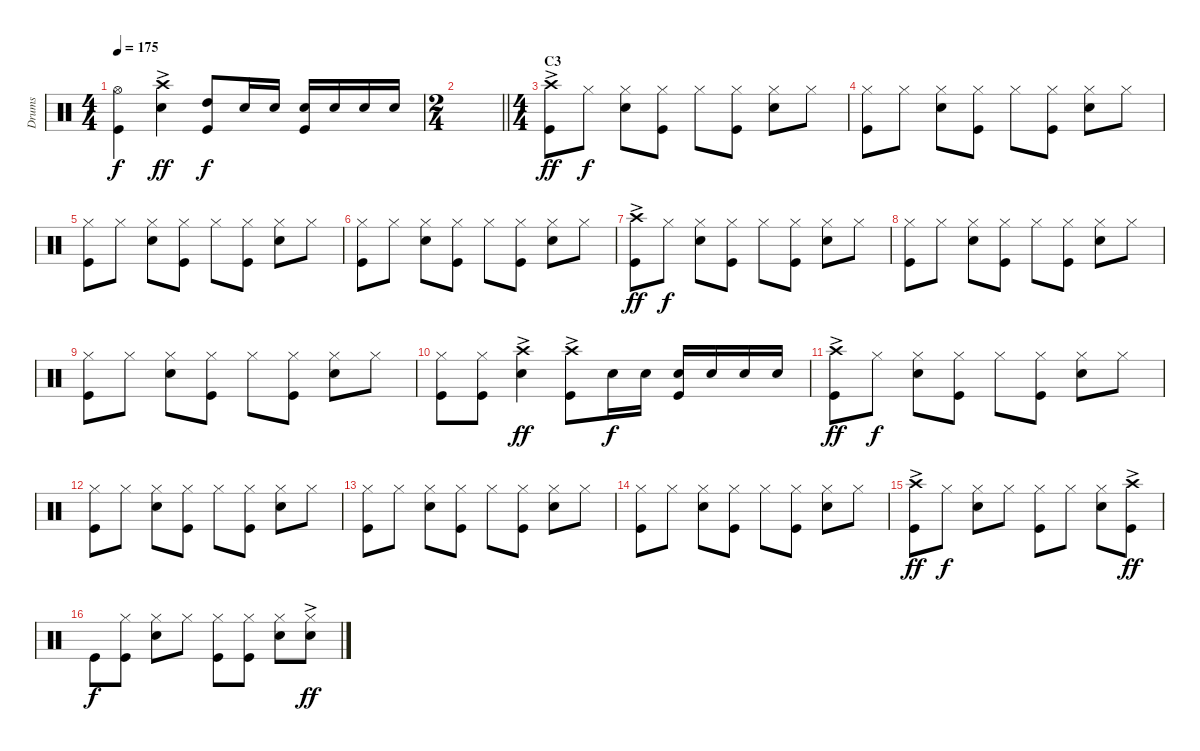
\track ("Drums" "Drums") {instrument percussion}
\staff {score}
\articulation defaults
\ts (4 4)
\tempo 175
\clef neutral
\ks c
("Hi-Hat (open)" "Kick (hit)").4{dy f} ("Crash high (hit)"{ac} "Snare (hit) 2").4{dy ff} ("Kick (hit)" "High Tom (hit)").8{dy f} "Snare (hit) 2".16 "Snare (hit) 2".16 ("Snare (hit) 2" "Kick (hit)").16 "Snare (hit) 2".16 "Snare (hit) 2".16 "Snare (hit) 2".16 |
\ts (2 4)
\barLineRight lightlight
|
\ts (4 4)
\section ("" "C3")
("Crash high (hit)"{ac} "Kick (hit)").8{dy ff} "Hi-Hat (closed)".8{dy f} ("Hi-Hat (closed)" "Snare (hit) 2").8 ("Hi-Hat (closed)" "Kick (hit)").8 "Hi-Hat (closed)".8 ("Hi-Hat (closed)" "Kick (hit)").8 ("Hi-Hat (closed)" "Snare (hit) 2").8 "Hi-Hat (closed)".8 |
("Hi-Hat (closed)" "Kick (hit)").8 "Hi-Hat (closed)".8 ("Hi-Hat (closed)" "Snare (hit) 2").8 ("Hi-Hat (closed)" "Kick (hit)").8 "Hi-Hat (closed)".8 ("Hi-Hat (closed)" "Kick (hit)").8 ("Hi-Hat (closed)" "Snare (hit) 2").8 "Hi-Hat (closed)".8 |
("Hi-Hat (closed)" "Kick (hit)").8 "Hi-Hat (closed)".8 ("Hi-Hat (closed)" "Snare (hit) 2").8 ("Hi-Hat (closed)" "Kick (hit)").8 "Hi-Hat (closed)".8 ("Hi-Hat (closed)" "Kick (hit)").8 ("Hi-Hat (closed)" "Snare (hit) 2").8 "Hi-Hat (closed)".8 |
("Hi-Hat (closed)" "Kick (hit)").8 "Hi-Hat (closed)".8 ("Hi-Hat (closed)" "Snare (hit) 2").8 ("Hi-Hat (closed)" "Kick (hit)").8 "Hi-Hat (closed)".8 ("Hi-Hat (closed)" "Kick (hit)").8 ("Hi-Hat (closed)" "Snare (hit) 2").8 "Hi-Hat (closed)".8 |
("Crash high (hit)"{ac} "Kick (hit)").8{dy ff} "Hi-Hat (closed)".8{dy f} ("Hi-Hat (closed)" "Snare (hit) 2").8 ("Hi-Hat (closed)" "Kick (hit)").8 "Hi-Hat (closed)".8 ("Hi-Hat (closed)" "Kick (hit)").8 ("Hi-Hat (closed)" "Snare (hit) 2").8 "Hi-Hat (closed)".8 |
("Hi-Hat (closed)" "Kick (hit)").8 "Hi-Hat (closed)".8 ("Hi-Hat (closed)" "Snare (hit) 2").8 ("Hi-Hat (closed)" "Kick (hit)").8 "Hi-Hat (closed)".8 ("Hi-Hat (closed)" "Kick (hit)").8 ("Hi-Hat (closed)" "Snare (hit) 2").8 "Hi-Hat (closed)".8 |
("Hi-Hat (closed)" "Kick (hit)").8 "Hi-Hat (closed)".8 ("Hi-Hat (closed)" "Snare (hit) 2").8 ("Hi-Hat (closed)" "Kick (hit)").8 "Hi-Hat (closed)".8 ("Hi-Hat (closed)" "Kick (hit)").8 ("Hi-Hat (closed)" "Snare (hit) 2").8 "Hi-Hat (closed)".8 |
("Hi-Hat (closed)" "Kick (hit)").8 ("Hi-Hat (closed)" "Kick (hit)").8 ("Crash high (hit)"{ac} "Snare (hit) 2").4{dy ff} ("Crash high (hit)"{ac} "Kick (hit)").8 "Snare (hit) 2".16{dy f} "Snare (hit) 2".16 ("Snare (hit) 2" "Kick (hit)").16 "Snare (hit) 2".16 "Snare (hit) 2".16 "Snare (hit) 2".16 |
("Crash high (hit)"{ac} "Kick (hit)").8{dy ff} "Hi-Hat (closed)".8{dy f} ("Hi-Hat (closed)" "Snare (hit) 2").8 ("Hi-Hat (closed)" "Kick (hit)").8 "Hi-Hat (closed)".8 ("Hi-Hat (closed)" "Kick (hit)").8 ("Hi-Hat (closed)" "Snare (hit) 2").8 "Hi-Hat (closed)".8 |
("Hi-Hat (closed)" "Kick (hit)").8 "Hi-Hat (closed)".8 ("Hi-Hat (closed)" "Snare (hit) 2").8 ("Hi-Hat (closed)" "Kick (hit)").8 "Hi-Hat (closed)".8 ("Hi-Hat (closed)" "Kick (hit)").8 ("Hi-Hat (closed)" "Snare (hit) 2").8 "Hi-Hat (closed)".8 |
("Hi-Hat (closed)" "Kick (hit)").8 "Hi-Hat (closed)".8 ("Hi-Hat (closed)" "Snare (hit) 2").8 ("Hi-Hat (closed)" "Kick (hit)").8 "Hi-Hat (closed)".8 ("Hi-Hat (closed)" "Kick (hit)").8 ("Hi-Hat (closed)" "Snare (hit) 2").8 "Hi-Hat (closed)".8 |
("Hi-Hat (closed)" "Kick (hit)").8 "Hi-Hat (closed)".8 ("Hi-Hat (closed)" "Snare (hit) 2").8 ("Hi-Hat (closed)" "Kick (hit)").8 "Hi-Hat (closed)".8 ("Hi-Hat (closed)" "Kick (hit)").8 ("Hi-Hat (closed)" "Snare (hit) 2").8 "Hi-Hat (closed)".8 |
("Crash high (hit)"{ac} "Kick (hit)").8{dy ff} "Hi-Hat (closed)".8{dy f} ("Hi-Hat (closed)" "Snare (hit) 2").8 "Hi-Hat (closed)".8 ("Hi-Hat (closed)" "Kick (hit)").8 "Hi-Hat (closed)".8 ("Hi-Hat (closed)" "Snare (hit) 2").8 ("Crash high (hit)"{ac} "Kick (hit)").8{dy ff} |
"Kick (hit)".8{dy f} ("Kick (hit)" "Hi-Hat (closed)").8 ("Hi-Hat (closed)" "Snare (hit) 2").8 "Hi-Hat (closed)".8 ("Hi-Hat (closed)" "Kick (hit)").8 ("Kick (hit)" "Hi-Hat (closed)").8 ("Hi-Hat (closed)" "Snare (hit) 2").8 ("Snare (hit) 2" "Hi-Hat (closed)"{ac}).8{dy ff}
